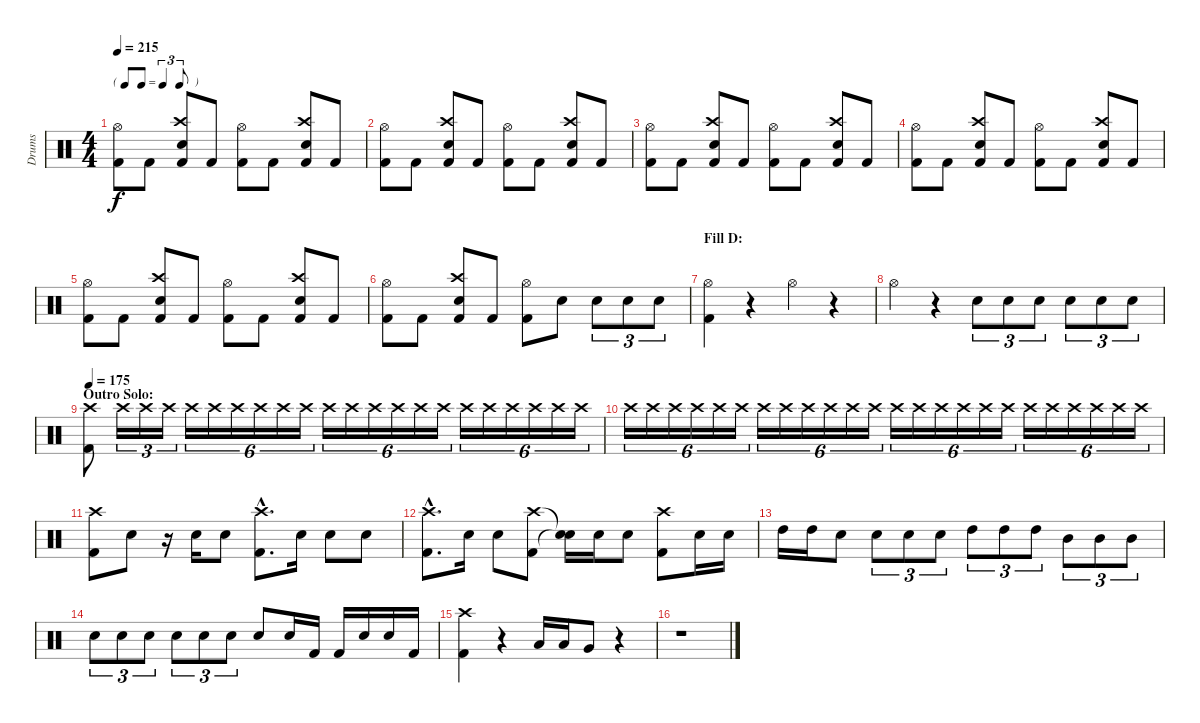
\track ("Drums" "Drums") {instrument percussion}
\staff {score}
\articulation defaults
\ts (4 4)
\tf triplet8th
\tempo 215
\clef neutral
\ks c
("Hi-Hat (open)" "Kick (hit) 2").8{dy f} "Kick (hit) 2".8 ("Crash high (hit)" "Electric Snare (hit)" "Kick (hit) 2").8 "Kick (hit) 2".8 ("Hi-Hat (open)" "Kick (hit) 2").8 "Kick (hit) 2".8 ("Crash high (hit)" "Electric Snare (hit)" "Kick (hit) 2").8 "Kick (hit) 2".8 |
("Hi-Hat (open)" "Kick (hit) 2").8 "Kick (hit) 2".8 ("Crash high (hit)" "Electric Snare (hit)" "Kick (hit) 2").8 "Kick (hit) 2".8 ("Hi-Hat (open)" "Kick (hit) 2").8 "Kick (hit) 2".8 ("Crash high (hit)" "Electric Snare (hit)" "Kick (hit) 2").8 "Kick (hit) 2".8 |
("Hi-Hat (open)" "Kick (hit) 2").8 "Kick (hit) 2".8 ("Crash high (hit)" "Electric Snare (hit)" "Kick (hit) 2").8 "Kick (hit) 2".8 ("Hi-Hat (open)" "Kick (hit) 2").8 "Kick (hit) 2".8 ("Crash high (hit)" "Electric Snare (hit)" "Kick (hit) 2").8 "Kick (hit) 2".8 |
("Hi-Hat (open)" "Kick (hit) 2").8 "Kick (hit) 2".8 ("Crash high (hit)" "Electric Snare (hit)" "Kick (hit) 2").8 "Kick (hit) 2".8 ("Hi-Hat (open)" "Kick (hit) 2").8 "Kick (hit) 2".8 ("Crash high (hit)" "Electric Snare (hit)" "Kick (hit) 2").8 "Kick (hit) 2".8 |
("Hi-Hat (open)" "Kick (hit) 2").8 "Kick (hit) 2".8 ("Crash high (hit)" "Electric Snare (hit)" "Kick (hit) 2").8 "Kick (hit) 2".8 ("Hi-Hat (open)" "Kick (hit) 2").8 "Kick (hit) 2".8 ("Crash high (hit)" "Electric Snare (hit)" "Kick (hit) 2").8 "Kick (hit) 2".8 |
("Hi-Hat (open)" "Kick (hit) 2").8 "Kick (hit) 2".8 ("Crash high (hit)" "Electric Snare (hit)" "Kick (hit) 2").8 "Kick (hit) 2".8 ("Hi-Hat (open)" "Kick (hit) 2").8 "Electric Snare (hit)".8 "Electric Snare (hit)".8{tu (3 2)} "Electric Snare (hit)".8{tu (3 2)} "Electric Snare (hit)".8{tu (3 2)} |
\section ("" "Fill D:")
("Hi-Hat (open)" "Kick (hit) 2").4 r.4 "Hi-Hat (open)".4 r.4 |
"Hi-Hat (open)".4 r.4 "Electric Snare (hit)".8{tu (3 2)} "Electric Snare (hit)".8{tu (3 2)} "Electric Snare (hit)".8{tu (3 2)} "Electric Snare (hit)".8{tu (3 2)} "Electric Snare (hit)".8{tu (3 2)} "Electric Snare (hit)".8{tu (3 2)} |
\section ("" "Outro Solo:")
\tempo 175
("Crash high (hit)" "Kick (hit) 2").8 "Crash high (hit)".16{tu (3 2)} "Crash high (hit)".16{tu (3 2)} "Crash high (hit)".16{tu (3 2)} "Crash high (hit)".16{tu (6 4)} "Crash high (hit)".16{tu (6 4)} "Crash high (hit)".16{tu (6 4)} "Crash high (hit)".16{tu (6 4)} "Crash high (hit)".16{tu (6 4)} "Crash high (hit)".16{tu (6 4)} "Crash high (hit)".16{tu (6 4)} "Crash high (hit)".16{tu (6 4)} "Crash high (hit)".16{tu (6 4)} "Crash high (hit)".16{tu (6 4)} "Crash high (hit)".16{tu (6 4)} "Crash high (hit)".16{tu (6 4)} "Crash high (hit)".16{tu (6 4)} "Crash high (hit)".16{tu (6 4)} "Crash high (hit)".16{tu (6 4)} "Crash high (hit)".16{tu (6 4)} "Crash high (hit)".16{tu (6 4)} "Crash high (hit)".16{tu (6 4)} |
"Crash high (hit)".16{tu (6 4)} "Crash high (hit)".16{tu (6 4)} "Crash high (hit)".16{tu (6 4)} "Crash high (hit)".16{tu (6 4)} "Crash high (hit)".16{tu (6 4)} "Crash high (hit)".16{tu (6 4)} "Crash high (hit)".16{tu (6 4)} "Crash high (hit)".16{tu (6 4)} "Crash high (hit)".16{tu (6 4)} "Crash high (hit)".16{tu (6 4)} "Crash high (hit)".16{tu (6 4)} "Crash high (hit)".16{tu (6 4)} "Crash high (hit)".16{tu (6 4)} "Crash high (hit)".16{tu (6 4)} "Crash high (hit)".16{tu (6 4)} "Crash high (hit)".16{tu (6 4)} "Crash high (hit)".16{tu (6 4)} "Crash high (hit)".16{tu (6 4)} "Crash high (hit)".16{tu (6 4)} "Crash high (hit)".16{tu (6 4)} "Crash high (hit)".16{tu (6 4)} "Crash high (hit)".16{tu (6 4)} "Crash high (hit)".16{tu (6 4)} "Crash high (hit)".16{tu (6 4)} |
("Crash high (hit)" "Kick (hit) 2").8 "Electric Snare (hit)".8 r.16 "Electric Snare (hit)".16 "Electric Snare (hit)".8 ("Crash high (hit)"{hac} "Kick (hit) 2"{hac}).8{d} "Electric Snare (hit)".16 "Electric Snare (hit)".8 "Electric Snare (hit)".8 |
("Crash high (hit)"{hac} "Kick (hit) 2"{hac}).8{d} "Electric Snare (hit)".16 "Electric Snare (hit)".8 ("Crash high (hit)" "Kick (hit) 2").8 ("Snare (hit)"{t} "Snare (hit)"{t}).16 "Electric Snare (hit)".16 "Electric Snare (hit)".8 ("Crash high (hit)" "Kick (hit) 2").8 "Electric Snare (hit)".16 "Electric Snare (hit)".16 |
"High Tom (hit)".16 "High Tom (hit)".16 "Electric Snare (hit)".8 "Electric Snare (hit)".8{tu (3 2)} "Electric Snare (hit)".8{tu (3 2)} "Electric Snare (hit)".8{tu (3 2)} "High Tom (hit)".8{tu (3 2)} "High Tom (hit)".8{tu (3 2)} "High Tom (hit)".8{tu (3 2)} "Mid Tom (hit)".8{tu (3 2)} "Mid Tom (hit)".8{tu (3 2)} "Mid Tom (hit)".8{tu (3 2)} |
"Electric Snare (hit)".8{tu (3 2)} "Electric Snare (hit)".8{tu (3 2)} "Electric Snare (hit)".8{tu (3 2)} "Electric Snare (hit)".8{tu (3 2)} "Electric Snare (hit)".8{tu (3 2)} "Electric Snare (hit)".8{tu (3 2)} "Electric Snare (hit)".8 "Electric Snare (hit)".16 "Kick (hit) 2".16 "Kick (hit) 2".16 "Electric Snare (hit)".16 "Electric Snare (hit)".16 "Kick (hit) 2".16 |
("Crash high (hit)" "Kick (hit) 2").4 r.4 "Low Tom (hit)".16 "Low Tom (hit)".16 "Very Low Tom (hit)".8 r.4 |
r.1
